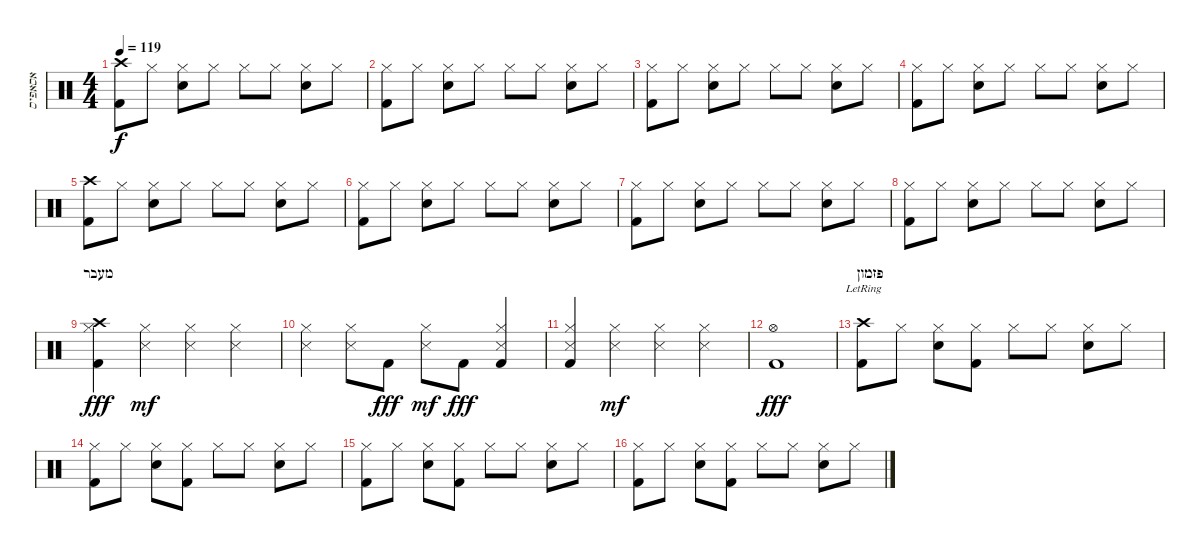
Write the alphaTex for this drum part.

\track ("אסאפיס" "אסאפיס") {instrument percussion}
\staff {score}
\articulation defaults
\ts (4 4)
\tempo 119
\clef neutral
\ks c
("Crash high (hit)" "Kick (hit) 2").8{dy f} "Hi-Hat (closed)".8 ("Hi-Hat (closed)" "Snare (hit) 2").8 "Hi-Hat (closed)".8 "Hi-Hat (closed)".8 "Hi-Hat (closed)".8 ("Hi-Hat (closed)" "Snare (hit) 2").8 "Hi-Hat (closed)".8 |
("Hi-Hat (closed)" "Kick (hit) 2").8 "Hi-Hat (closed)".8 ("Hi-Hat (closed)" "Snare (hit) 2").8 "Hi-Hat (closed)".8 "Hi-Hat (closed)".8 "Hi-Hat (closed)".8 ("Hi-Hat (closed)" "Snare (hit) 2").8 "Hi-Hat (closed)".8 |
("Hi-Hat (closed)" "Kick (hit) 2").8 "Hi-Hat (closed)".8 ("Hi-Hat (closed)" "Snare (hit) 2").8 "Hi-Hat (closed)".8 "Hi-Hat (closed)".8 "Hi-Hat (closed)".8 ("Hi-Hat (closed)" "Snare (hit) 2").8 "Hi-Hat (closed)".8 |
("Hi-Hat (closed)" "Kick (hit) 2").8 "Hi-Hat (closed)".8 ("Hi-Hat (closed)" "Snare (hit) 2").8 "Hi-Hat (closed)".8 "Hi-Hat (closed)".8 "Hi-Hat (closed)".8 ("Hi-Hat (closed)" "Snare (hit) 2").8 "Hi-Hat (closed)".8 |
("Crash high (hit)" "Kick (hit) 2").8 "Hi-Hat (closed)".8 ("Hi-Hat (closed)" "Snare (hit) 2").8 "Hi-Hat (closed)".8 "Hi-Hat (closed)".8 "Hi-Hat (closed)".8 ("Hi-Hat (closed)" "Snare (hit) 2").8 "Hi-Hat (closed)".8 |
("Hi-Hat (closed)" "Kick (hit) 2").8 "Hi-Hat (closed)".8 ("Hi-Hat (closed)" "Snare (hit) 2").8 "Hi-Hat (closed)".8 "Hi-Hat (closed)".8 "Hi-Hat (closed)".8 ("Hi-Hat (closed)" "Snare (hit) 2").8 "Hi-Hat (closed)".8 |
("Hi-Hat (closed)" "Kick (hit) 2").8 "Hi-Hat (closed)".8 ("Hi-Hat (closed)" "Snare (hit) 2").8 "Hi-Hat (closed)".8 "Hi-Hat (closed)".8 "Hi-Hat (closed)".8 ("Hi-Hat (closed)" "Snare (hit) 2").8 "Hi-Hat (closed)".8 |
("Hi-Hat (closed)" "Kick (hit) 2").8 "Hi-Hat (closed)".8 ("Hi-Hat (closed)" "Snare (hit) 2").8 "Hi-Hat (closed)".8 "Hi-Hat (closed)".8 "Hi-Hat (closed)".8 ("Hi-Hat (closed)" "Snare (hit) 2").8 "Hi-Hat (closed)".8 |
\section ("" "מעבר")
("Crash high (hit)" "Hi-Hat (closed)" "Kick (hit) 2").4{dy fff} ("Hi-Hat (closed)" "Snare (side stick) 3").4{dy mf} ("Hi-Hat (closed)" "Snare (side stick) 3").4 ("Hi-Hat (closed)" "Snare (side stick) 3").4 |
("Hi-Hat (closed)" "Snare (side stick) 3").4 ("Hi-Hat (closed)" "Snare (side stick) 3").8 "Kick (hit) 2".8{dy fff} ("Hi-Hat (closed)" "Snare (side stick) 3").8{dy mf} "Kick (hit) 2".8{dy fff} ("Hi-Hat (closed)" "Snare (side stick) 3" "Kick (hit) 2").4 |
("Hi-Hat (closed)" "Snare (side stick) 3" "Kick (hit) 2").4 ("Hi-Hat (closed)" "Snare (side stick) 3").4{dy mf} ("Hi-Hat (closed)" "Snare (side stick) 3").4 ("Hi-Hat (closed)" "Snare (side stick) 3").4 |
("Hi-Hat (open)" "Kick (hit) 2").1{dy fff} |
\section ("" "פזמון")
("Crash high (hit)"{lr} "Kick (hit) 2").8 "Hi-Hat (closed)".8 ("Hi-Hat (closed)" "Snare (hit) 2").8 ("Hi-Hat (closed)" "Kick (hit) 2").8 "Hi-Hat (closed)".8 "Hi-Hat (closed)".8 ("Hi-Hat (closed)" "Snare (hit) 2").8 "Hi-Hat (closed)".8 |
("Hi-Hat (closed)" "Kick (hit) 2").8 "Hi-Hat (closed)".8 ("Hi-Hat (closed)" "Snare (hit) 2").8 ("Hi-Hat (closed)" "Kick (hit) 2").8 "Hi-Hat (closed)".8 "Hi-Hat (closed)".8 ("Hi-Hat (closed)" "Snare (hit) 2").8 "Hi-Hat (closed)".8 |
("Hi-Hat (closed)" "Kick (hit) 2").8 "Hi-Hat (closed)".8 ("Hi-Hat (closed)" "Snare (hit) 2").8 ("Hi-Hat (closed)" "Kick (hit) 2").8 "Hi-Hat (closed)".8 "Hi-Hat (closed)".8 ("Hi-Hat (closed)" "Snare (hit) 2").8 "Hi-Hat (closed)".8 |
("Hi-Hat (closed)" "Kick (hit) 2").8 "Hi-Hat (closed)".8 ("Hi-Hat (closed)" "Snare (hit) 2").8 ("Hi-Hat (closed)" "Kick (hit) 2").8 "Hi-Hat (closed)".8 "Hi-Hat (closed)".8 ("Hi-Hat (closed)" "Snare (hit) 2").8 "Hi-Hat (closed)".8
